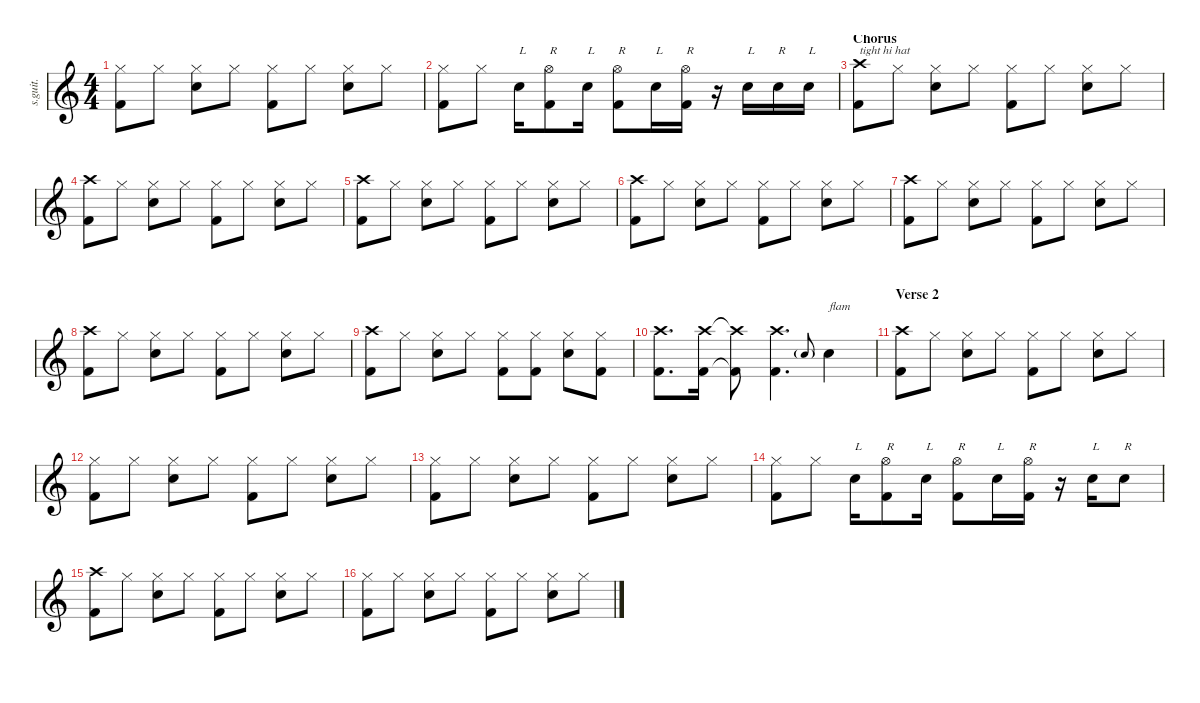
\defaultSystemsLayout 4
\hideDynamics
\bracketExtendMode nobrackets
\track ("Phil Rudd - Drums" "s.guit.") {instrument percussion}
\staff {score}
\articulation defaults
\ts (4 4)
\tempo (92 hide)
\clef g2
\ks c
("Hi-Hat (closed)" "Kick (hit) 2").8{lyrics (0 "") lyrics (1 "") lyrics (2 "") lyrics (3 "") lyrics (4 "") dy f} "Hi-Hat (closed)".8{lyrics (0 "") lyrics (1 "") lyrics (2 "") lyrics (3 "") lyrics (4 "")} ("Hi-Hat (closed)" "Snare (hit) 2").8{lyrics (0 "") lyrics (1 "") lyrics (2 "") lyrics (3 "") lyrics (4 "")} "Hi-Hat (closed)".8{lyrics (0 "") lyrics (1 "") lyrics (2 "") lyrics (3 "") lyrics (4 "")} ("Hi-Hat (closed)" "Kick (hit) 2").8{lyrics (0 "") lyrics (1 "") lyrics (2 "") lyrics (3 "") lyrics (4 "")} "Hi-Hat (closed)".8{lyrics (0 "") lyrics (1 "") lyrics (2 "") lyrics (3 "") lyrics (4 "")} ("Hi-Hat (closed)" "Snare (hit) 2").8{lyrics (0 "") lyrics (1 "") lyrics (2 "") lyrics (3 "") lyrics (4 "")} "Hi-Hat (closed)".8{lyrics (0 "") lyrics (1 "") lyrics (2 "") lyrics (3 "") lyrics (4 "")} |
("Hi-Hat (closed)" "Kick (hit) 2").8{lyrics (0 "") lyrics (1 "") lyrics (2 "") lyrics (3 "") lyrics (4 "")} "Hi-Hat (closed)".8{lyrics (0 "") lyrics (1 "") lyrics (2 "") lyrics (3 "") lyrics (4 "")} "Snare (hit) 2".16{txt "L" lyrics (0 "") lyrics (1 "") lyrics (2 "") lyrics (3 "") lyrics (4 "")} ("Hi-Hat (open)" "Kick (hit) 2").8{txt "R" lyrics (0 "") lyrics (1 "") lyrics (2 "") lyrics (3 "") lyrics (4 "") dy p} "Snare (hit) 2".16{txt "L" lyrics (0 "") lyrics (1 "") lyrics (2 "") lyrics (3 "") lyrics (4 "") dy f} ("Hi-Hat (open)" "Kick (hit) 2").8{txt "R" lyrics (0 "") lyrics (1 "") lyrics (2 "") lyrics (3 "") lyrics (4 "")} "Snare (hit) 2".16{txt "L" lyrics (0 "") lyrics (1 "") lyrics (2 "") lyrics (3 "") lyrics (4 "")} ("Hi-Hat (open)" "Kick (hit) 2").16{txt "R" lyrics (0 "") lyrics (1 "") lyrics (2 "") lyrics (3 "") lyrics (4 "")} r.16 "Snare (hit) 2".16{txt "L" lyrics (0 "") lyrics (1 "") lyrics (2 "") lyrics (3 "") lyrics (4 "")} "Snare (hit) 2".16{txt "R" lyrics (0 "") lyrics (1 "") lyrics (2 "") lyrics (3 "") lyrics (4 "")} "Snare (hit) 2".16{txt "L" lyrics (0 "") lyrics (1 "") lyrics (2 "") lyrics (3 "") lyrics (4 "")} |
\section ("" "Chorus")
\tempo (96 hide)
("Crash high (hit)" "Kick (hit) 2").8{txt "tight hi hat" lyrics (0 "") lyrics (1 "") lyrics (2 "") lyrics (3 "") lyrics (4 "")} "Hi-Hat (closed)".8{lyrics (0 "") lyrics (1 "") lyrics (2 "") lyrics (3 "") lyrics (4 "")} ("Hi-Hat (closed)" "Snare (hit) 2").8{lyrics (0 "") lyrics (1 "") lyrics (2 "") lyrics (3 "") lyrics (4 "")} "Hi-Hat (closed)".8{lyrics (0 "") lyrics (1 "") lyrics (2 "") lyrics (3 "") lyrics (4 "")} ("Hi-Hat (closed)" "Kick (hit) 2").8{lyrics (0 "") lyrics (1 "") lyrics (2 "") lyrics (3 "") lyrics (4 "")} "Hi-Hat (closed)".8{lyrics (0 "") lyrics (1 "") lyrics (2 "") lyrics (3 "") lyrics (4 "")} ("Hi-Hat (closed)" "Snare (hit) 2").8{lyrics (0 "") lyrics (1 "") lyrics (2 "") lyrics (3 "") lyrics (4 "")} "Hi-Hat (closed)".8{lyrics (0 "") lyrics (1 "") lyrics (2 "") lyrics (3 "") lyrics (4 "")} |
("Crash high (hit)" "Kick (hit) 2").8{lyrics (0 "") lyrics (1 "") lyrics (2 "") lyrics (3 "") lyrics (4 "")} "Hi-Hat (closed)".8{lyrics (0 "") lyrics (1 "") lyrics (2 "") lyrics (3 "") lyrics (4 "")} ("Hi-Hat (closed)" "Snare (hit) 2").8{lyrics (0 "") lyrics (1 "") lyrics (2 "") lyrics (3 "") lyrics (4 "")} "Hi-Hat (closed)".8{lyrics (0 "") lyrics (1 "") lyrics (2 "") lyrics (3 "") lyrics (4 "")} ("Hi-Hat (closed)" "Kick (hit) 2").8{lyrics (0 "") lyrics (1 "") lyrics (2 "") lyrics (3 "") lyrics (4 "")} "Hi-Hat (closed)".8{lyrics (0 "") lyrics (1 "") lyrics (2 "") lyrics (3 "") lyrics (4 "")} ("Hi-Hat (closed)" "Snare (hit) 2").8{lyrics (0 "") lyrics (1 "") lyrics (2 "") lyrics (3 "") lyrics (4 "")} "Hi-Hat (closed)".8{lyrics (0 "") lyrics (1 "") lyrics (2 "") lyrics (3 "") lyrics (4 "")} |
("Crash high (hit)" "Kick (hit) 2").8{lyrics (0 "") lyrics (1 "") lyrics (2 "") lyrics (3 "") lyrics (4 "")} "Hi-Hat (closed)".8{lyrics (0 "") lyrics (1 "") lyrics (2 "") lyrics (3 "") lyrics (4 "")} ("Hi-Hat (closed)" "Snare (hit) 2").8{lyrics (0 "") lyrics (1 "") lyrics (2 "") lyrics (3 "") lyrics (4 "")} "Hi-Hat (closed)".8{lyrics (0 "") lyrics (1 "") lyrics (2 "") lyrics (3 "") lyrics (4 "")} ("Hi-Hat (closed)" "Kick (hit) 2").8{lyrics (0 "") lyrics (1 "") lyrics (2 "") lyrics (3 "") lyrics (4 "")} "Hi-Hat (closed)".8{lyrics (0 "") lyrics (1 "") lyrics (2 "") lyrics (3 "") lyrics (4 "")} ("Hi-Hat (closed)" "Snare (hit) 2").8{lyrics (0 "") lyrics (1 "") lyrics (2 "") lyrics (3 "") lyrics (4 "")} "Hi-Hat (closed)".8{lyrics (0 "") lyrics (1 "") lyrics (2 "") lyrics (3 "") lyrics (4 "")} |
("Crash high (hit)" "Kick (hit) 2").8{lyrics (0 "") lyrics (1 "") lyrics (2 "") lyrics (3 "") lyrics (4 "")} "Hi-Hat (closed)".8{lyrics (0 "") lyrics (1 "") lyrics (2 "") lyrics (3 "") lyrics (4 "")} ("Hi-Hat (closed)" "Snare (hit) 2").8{lyrics (0 "") lyrics (1 "") lyrics (2 "") lyrics (3 "") lyrics (4 "")} "Hi-Hat (closed)".8{lyrics (0 "") lyrics (1 "") lyrics (2 "") lyrics (3 "") lyrics (4 "")} ("Hi-Hat (closed)" "Kick (hit) 2").8{lyrics (0 "") lyrics (1 "") lyrics (2 "") lyrics (3 "") lyrics (4 "")} "Hi-Hat (closed)".8{lyrics (0 "") lyrics (1 "") lyrics (2 "") lyrics (3 "") lyrics (4 "")} ("Hi-Hat (closed)" "Snare (hit) 2").8{lyrics (0 "") lyrics (1 "") lyrics (2 "") lyrics (3 "") lyrics (4 "")} "Hi-Hat (closed)".8{lyrics (0 "") lyrics (1 "") lyrics (2 "") lyrics (3 "") lyrics (4 "")} |
("Crash high (hit)" "Kick (hit) 2").8{lyrics (0 "") lyrics (1 "") lyrics (2 "") lyrics (3 "") lyrics (4 "")} "Hi-Hat (closed)".8{lyrics (0 "") lyrics (1 "") lyrics (2 "") lyrics (3 "") lyrics (4 "")} ("Hi-Hat (closed)" "Snare (hit) 2").8{lyrics (0 "") lyrics (1 "") lyrics (2 "") lyrics (3 "") lyrics (4 "")} "Hi-Hat (closed)".8{lyrics (0 "") lyrics (1 "") lyrics (2 "") lyrics (3 "") lyrics (4 "")} ("Hi-Hat (closed)" "Kick (hit) 2").8{lyrics (0 "") lyrics (1 "") lyrics (2 "") lyrics (3 "") lyrics (4 "")} "Hi-Hat (closed)".8{lyrics (0 "") lyrics (1 "") lyrics (2 "") lyrics (3 "") lyrics (4 "")} ("Hi-Hat (closed)" "Snare (hit) 2").8{lyrics (0 "") lyrics (1 "") lyrics (2 "") lyrics (3 "") lyrics (4 "")} "Hi-Hat (closed)".8{lyrics (0 "") lyrics (1 "") lyrics (2 "") lyrics (3 "") lyrics (4 "")} |
("Crash high (hit)" "Kick (hit) 2").8{lyrics (0 "") lyrics (1 "") lyrics (2 "") lyrics (3 "") lyrics (4 "")} "Hi-Hat (closed)".8{lyrics (0 "") lyrics (1 "") lyrics (2 "") lyrics (3 "") lyrics (4 "")} ("Hi-Hat (closed)" "Snare (hit) 2").8{lyrics (0 "") lyrics (1 "") lyrics (2 "") lyrics (3 "") lyrics (4 "")} "Hi-Hat (closed)".8{lyrics (0 "") lyrics (1 "") lyrics (2 "") lyrics (3 "") lyrics (4 "")} ("Hi-Hat (closed)" "Kick (hit) 2").8{lyrics (0 "") lyrics (1 "") lyrics (2 "") lyrics (3 "") lyrics (4 "")} "Hi-Hat (closed)".8{lyrics (0 "") lyrics (1 "") lyrics (2 "") lyrics (3 "") lyrics (4 "")} ("Hi-Hat (closed)" "Snare (hit) 2").8{lyrics (0 "") lyrics (1 "") lyrics (2 "") lyrics (3 "") lyrics (4 "")} "Hi-Hat (closed)".8{lyrics (0 "") lyrics (1 "") lyrics (2 "") lyrics (3 "") lyrics (4 "")} |
("Crash high (hit)" "Kick (hit) 2").8{lyrics (0 "") lyrics (1 "") lyrics (2 "") lyrics (3 "") lyrics (4 "")} "Hi-Hat (closed)".8{lyrics (0 "") lyrics (1 "") lyrics (2 "") lyrics (3 "") lyrics (4 "")} ("Hi-Hat (closed)" "Snare (hit) 2").8{lyrics (0 "") lyrics (1 "") lyrics (2 "") lyrics (3 "") lyrics (4 "")} "Hi-Hat (closed)".8{lyrics (0 "") lyrics (1 "") lyrics (2 "") lyrics (3 "") lyrics (4 "")} ("Hi-Hat (closed)" "Kick (hit) 2").8{lyrics (0 "") lyrics (1 "") lyrics (2 "") lyrics (3 "") lyrics (4 "")} ("Hi-Hat (closed)" "Kick (hit) 2").8{lyrics (0 "") lyrics (1 "") lyrics (2 "") lyrics (3 "") lyrics (4 "")} ("Hi-Hat (closed)" "Snare (hit) 2").8{lyrics (0 "") lyrics (1 "") lyrics (2 "") lyrics (3 "") lyrics (4 "")} ("Hi-Hat (closed)" "Kick (hit) 2").8{lyrics (0 "") lyrics (1 "") lyrics (2 "") lyrics (3 "") lyrics (4 "")} |
("Crash high (hit)" "Kick (hit) 2").8{d lyrics (0 "") lyrics (1 "") lyrics (2 "") lyrics (3 "") lyrics (4 "")} ("Crash high (hit)" "Kick (hit) 2").16{lyrics (0 "") lyrics (1 "") lyrics (2 "") lyrics (3 "") lyrics (4 "")} ("Crash high (hit)"{t} "Kick (hit) 2"{t}).8{lyrics (0 "") lyrics (1 "") lyrics (2 "") lyrics (3 "") lyrics (4 "")} ("Crash high (hit)" "Kick (hit) 2").4{d lyrics (0 "") lyrics (1 "") lyrics (2 "") lyrics (3 "") lyrics (4 "")} "Snare (hit) 2"{g}.8{lyrics (0 "") lyrics (1 "") lyrics (2 "") lyrics (3 "") lyrics (4 "") gr onbeat} "Snare (hit) 2".4{txt "flam" lyrics (0 "") lyrics (1 "") lyrics (2 "") lyrics (3 "") lyrics (4 "")} |
\section ("" "Verse 2")
\tempo (93 hide)
("Crash high (hit)" "Kick (hit) 2").8{lyrics (0 "") lyrics (1 "") lyrics (2 "") lyrics (3 "") lyrics (4 "")} "Hi-Hat (closed)".8{lyrics (0 "") lyrics (1 "") lyrics (2 "") lyrics (3 "") lyrics (4 "")} ("Hi-Hat (closed)" "Snare (hit) 2").8{lyrics (0 "") lyrics (1 "") lyrics (2 "") lyrics (3 "") lyrics (4 "")} "Hi-Hat (closed)".8{lyrics (0 "") lyrics (1 "") lyrics (2 "") lyrics (3 "") lyrics (4 "")} ("Hi-Hat (closed)" "Kick (hit) 2").8{lyrics (0 "") lyrics (1 "") lyrics (2 "") lyrics (3 "") lyrics (4 "")} "Hi-Hat (closed)".8{lyrics (0 "") lyrics (1 "") lyrics (2 "") lyrics (3 "") lyrics (4 "")} ("Hi-Hat (closed)" "Snare (hit) 2").8{lyrics (0 "") lyrics (1 "") lyrics (2 "") lyrics (3 "") lyrics (4 "")} "Hi-Hat (closed)".8{lyrics (0 "") lyrics (1 "") lyrics (2 "") lyrics (3 "") lyrics (4 "")} |
("Hi-Hat (closed)" "Kick (hit) 2").8{lyrics (0 "") lyrics (1 "") lyrics (2 "") lyrics (3 "") lyrics (4 "")} "Hi-Hat (closed)".8{lyrics (0 "") lyrics (1 "") lyrics (2 "") lyrics (3 "") lyrics (4 "")} ("Hi-Hat (closed)" "Snare (hit) 2").8{lyrics (0 "") lyrics (1 "") lyrics (2 "") lyrics (3 "") lyrics (4 "")} "Hi-Hat (closed)".8{lyrics (0 "") lyrics (1 "") lyrics (2 "") lyrics (3 "") lyrics (4 "")} ("Hi-Hat (closed)" "Kick (hit) 2").8{lyrics (0 "") lyrics (1 "") lyrics (2 "") lyrics (3 "") lyrics (4 "")} "Hi-Hat (closed)".8{lyrics (0 "") lyrics (1 "") lyrics (2 "") lyrics (3 "") lyrics (4 "")} ("Hi-Hat (closed)" "Snare (hit) 2").8{lyrics (0 "") lyrics (1 "") lyrics (2 "") lyrics (3 "") lyrics (4 "")} "Hi-Hat (closed)".8{lyrics (0 "") lyrics (1 "") lyrics (2 "") lyrics (3 "") lyrics (4 "")} |
("Hi-Hat (closed)" "Kick (hit) 2").8{lyrics (0 "") lyrics (1 "") lyrics (2 "") lyrics (3 "") lyrics (4 "")} "Hi-Hat (closed)".8{lyrics (0 "") lyrics (1 "") lyrics (2 "") lyrics (3 "") lyrics (4 "")} ("Hi-Hat (closed)" "Snare (hit) 2").8{lyrics (0 "") lyrics (1 "") lyrics (2 "") lyrics (3 "") lyrics (4 "")} "Hi-Hat (closed)".8{lyrics (0 "") lyrics (1 "") lyrics (2 "") lyrics (3 "") lyrics (4 "")} ("Hi-Hat (closed)" "Kick (hit) 2").8{lyrics (0 "") lyrics (1 "") lyrics (2 "") lyrics (3 "") lyrics (4 "")} "Hi-Hat (closed)".8{lyrics (0 "") lyrics (1 "") lyrics (2 "") lyrics (3 "") lyrics (4 "")} ("Hi-Hat (closed)" "Snare (hit) 2").8{lyrics (0 "") lyrics (1 "") lyrics (2 "") lyrics (3 "") lyrics (4 "")} "Hi-Hat (closed)".8{lyrics (0 "") lyrics (1 "") lyrics (2 "") lyrics (3 "") lyrics (4 "")} |
("Hi-Hat (closed)" "Kick (hit) 2").8{lyrics (0 "") lyrics (1 "") lyrics (2 "") lyrics (3 "") lyrics (4 "")} "Hi-Hat (closed)".8{lyrics (0 "") lyrics (1 "") lyrics (2 "") lyrics (3 "") lyrics (4 "")} "Snare (hit) 2".16{txt "L" lyrics (0 "") lyrics (1 "") lyrics (2 "") lyrics (3 "") lyrics (4 "")} ("Hi-Hat (open)" "Kick (hit) 2").8{txt "R" lyrics (0 "") lyrics (1 "") lyrics (2 "") lyrics (3 "") lyrics (4 "") dy p} "Snare (hit) 2".16{txt "L" lyrics (0 "") lyrics (1 "") lyrics (2 "") lyrics (3 "") lyrics (4 "") dy f} ("Hi-Hat (open)" "Kick (hit) 2").8{txt "R" lyrics (0 "") lyrics (1 "") lyrics (2 "") lyrics (3 "") lyrics (4 "") dy p} "Snare (hit) 2".16{txt "L" lyrics (0 "") lyrics (1 "") lyrics (2 "") lyrics (3 "") lyrics (4 "") dy f} ("Hi-Hat (open)" "Kick (hit) 2").16{txt "R" lyrics (0 "") lyrics (1 "") lyrics (2 "") lyrics (3 "") lyrics (4 "") dy p} r.16 "Snare (hit) 2".16{txt "L" lyrics (0 "") lyrics (1 "") lyrics (2 "") lyrics (3 "") lyrics (4 "") dy f} "Snare (hit) 2".8{txt "R" lyrics (0 "") lyrics (1 "") lyrics (2 "") lyrics (3 "") lyrics (4 "")} |
("Crash high (hit)" "Kick (hit) 2").8{lyrics (0 "") lyrics (1 "") lyrics (2 "") lyrics (3 "") lyrics (4 "")} "Hi-Hat (closed)".8{lyrics (0 "") lyrics (1 "") lyrics (2 "") lyrics (3 "") lyrics (4 "")} ("Hi-Hat (closed)" "Snare (hit) 2").8{lyrics (0 "") lyrics (1 "") lyrics (2 "") lyrics (3 "") lyrics (4 "")} "Hi-Hat (closed)".8{lyrics (0 "") lyrics (1 "") lyrics (2 "") lyrics (3 "") lyrics (4 "")} ("Hi-Hat (closed)" "Kick (hit) 2").8{lyrics (0 "") lyrics (1 "") lyrics (2 "") lyrics (3 "") lyrics (4 "")} "Hi-Hat (closed)".8{lyrics (0 "") lyrics (1 "") lyrics (2 "") lyrics (3 "") lyrics (4 "")} ("Hi-Hat (closed)" "Snare (hit) 2").8{lyrics (0 "") lyrics (1 "") lyrics (2 "") lyrics (3 "") lyrics (4 "")} "Hi-Hat (closed)".8{lyrics (0 "") lyrics (1 "") lyrics (2 "") lyrics (3 "") lyrics (4 "")} |
("Hi-Hat (closed)" "Kick (hit) 2").8{lyrics (0 "") lyrics (1 "") lyrics (2 "") lyrics (3 "") lyrics (4 "")} "Hi-Hat (closed)".8{lyrics (0 "") lyrics (1 "") lyrics (2 "") lyrics (3 "") lyrics (4 "")} ("Hi-Hat (closed)" "Snare (hit) 2").8{lyrics (0 "") lyrics (1 "") lyrics (2 "") lyrics (3 "") lyrics (4 "")} "Hi-Hat (closed)".8{lyrics (0 "") lyrics (1 "") lyrics (2 "") lyrics (3 "") lyrics (4 "")} ("Hi-Hat (closed)" "Kick (hit) 2").8{lyrics (0 "") lyrics (1 "") lyrics (2 "") lyrics (3 "") lyrics (4 "")} "Hi-Hat (closed)".8{lyrics (0 "") lyrics (1 "") lyrics (2 "") lyrics (3 "") lyrics (4 "")} ("Hi-Hat (closed)" "Snare (hit) 2").8{lyrics (0 "") lyrics (1 "") lyrics (2 "") lyrics (3 "") lyrics (4 "")} "Hi-Hat (closed)".8{lyrics (0 "") lyrics (1 "") lyrics (2 "") lyrics (3 "") lyrics (4 "")}
